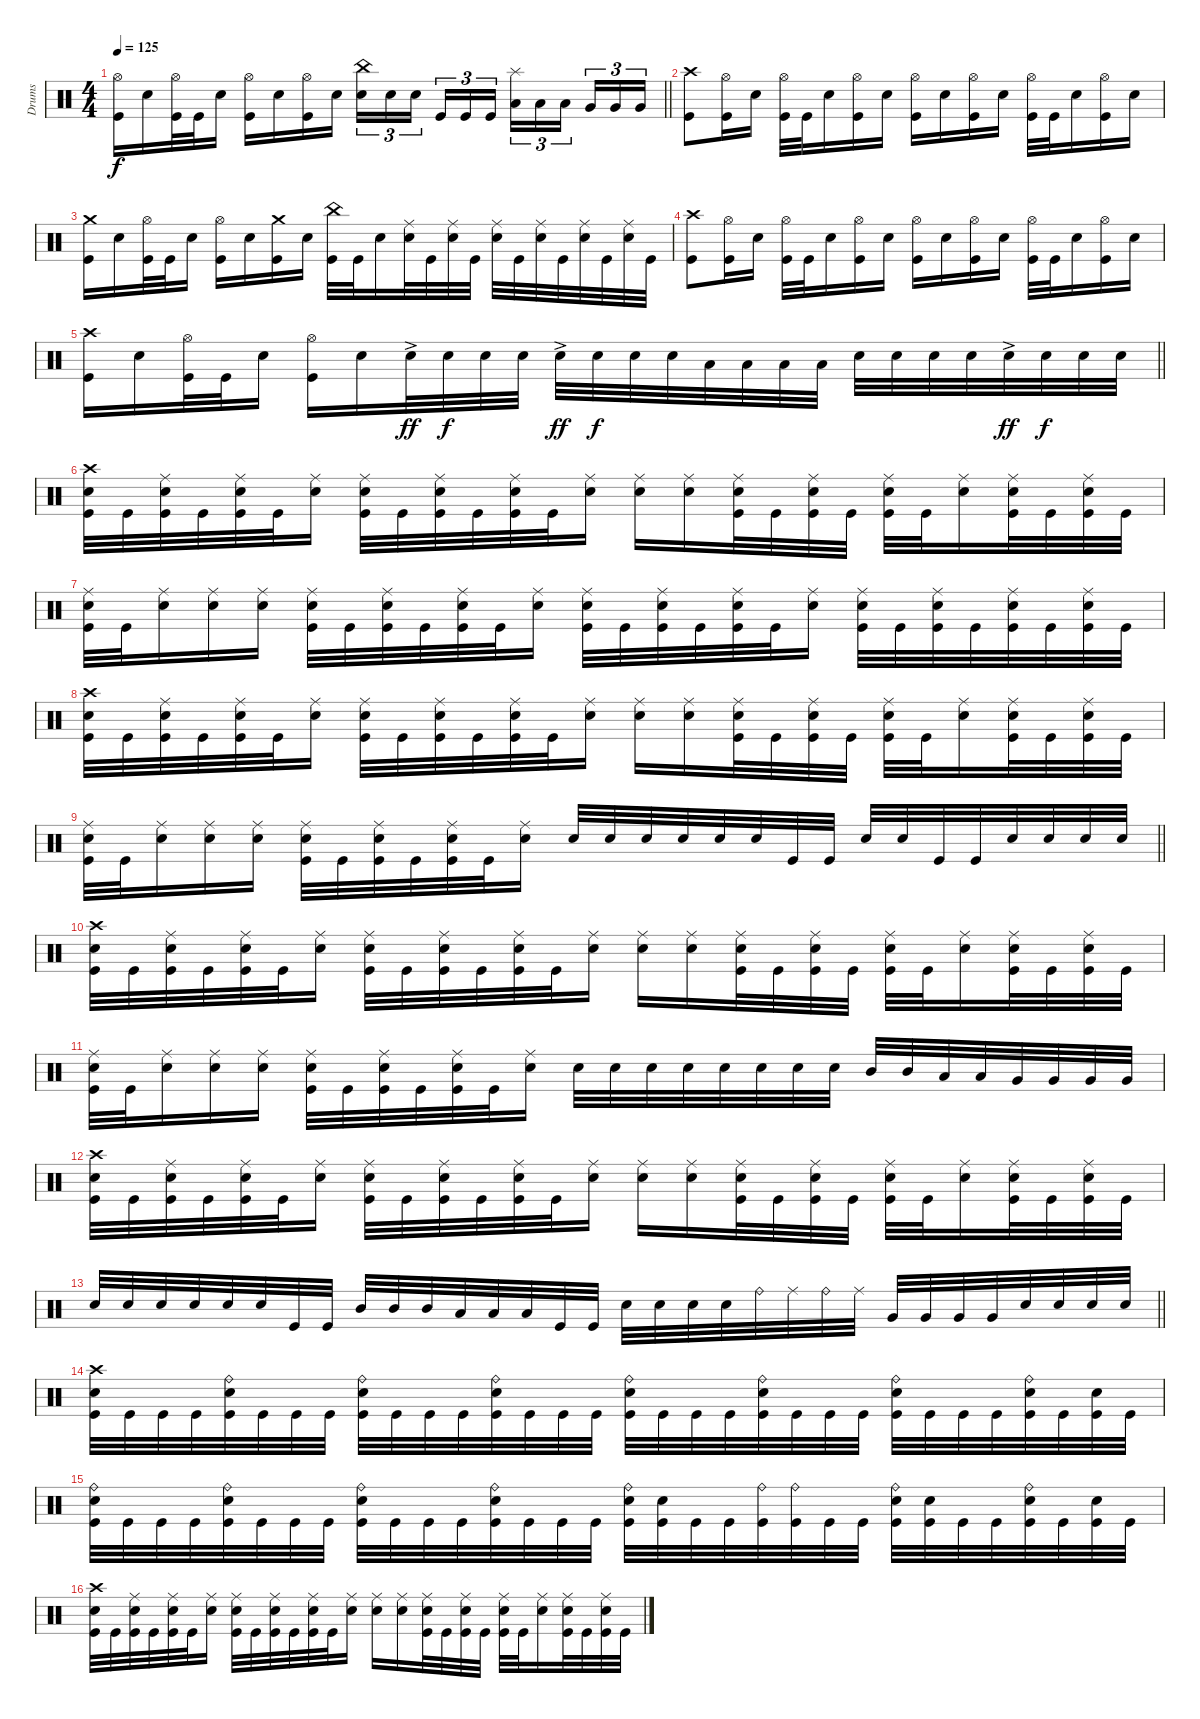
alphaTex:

\track ("Drums" "Drums") {instrument percussion}
\staff
\articulation defaults
\ts (4 4)
\tempo 125
\clef neutral
\barLineRight lightlight
\ks c
("Hi-Hat (open)" "Kick (hit)").16{dy f} "Electric Snare (hit)".16 ("Hi-Hat (open)" "Kick (hit)").32 "Kick (hit)".32 "Electric Snare (hit)".16 ("Hi-Hat (open)" "Kick (hit)").16 "Electric Snare (hit)".16 ("Hi-Hat (open)" "Kick (hit)").16 "Electric Snare (hit)".16 ("China (hit)" "Electric Snare (hit)").16{tu (3 2)} "Electric Snare (hit)".16{tu (3 2)} "Electric Snare (hit)".16{tu (3 2) beam splitsecondary} "Kick (hit)".16{tu (3 2)} "Kick (hit)".16{tu (3 2)} "Kick (hit)".16{tu (3 2)} ("Splash (hit)" "Low Tom (hit)").16{tu (3 2)} "Low Tom (hit)".16{tu (3 2)} "Low Tom (hit)".16{tu (3 2) beam splitsecondary} "Very Low Tom (hit)".16{tu (3 2)} "Very Low Tom (hit)".16{tu (3 2)} "Very Low Tom (hit)".16{tu (3 2)} |
("Crash high (hit)" "Kick (hit)").8 ("Hi-Hat (open)" "Kick (hit)").16 "Electric Snare (hit)".16 ("Hi-Hat (open)" "Kick (hit)").32 "Kick (hit)".32 "Electric Snare (hit)".16 ("Hi-Hat (open)" "Kick (hit)").16 "Electric Snare (hit)".16 ("Hi-Hat (open)" "Kick (hit)").16 "Electric Snare (hit)".16 ("Hi-Hat (open)" "Kick (hit)").16 "Electric Snare (hit)".16 ("Hi-Hat (open)" "Kick (hit)").32 "Kick (hit)".32 "Electric Snare (hit)".16 ("Hi-Hat (open)" "Kick (hit)").16 "Electric Snare (hit)".16 |
("Crash medium (hit)" "Kick (hit)").16 "Electric Snare (hit)".16 ("Hi-Hat (open)" "Kick (hit)").32 "Kick (hit)".32 "Electric Snare (hit)".16 ("Hi-Hat (open)" "Kick (hit)").16 "Electric Snare (hit)".16 ("Crash medium (hit)" "Kick (hit)").16 "Electric Snare (hit)".16 ("China (hit)" "Kick (hit)").32 "Kick (hit)".32 "Electric Snare (hit)".16 ("Ride (middle)" "Electric Snare (hit)").32 "Kick (hit)".32 ("Ride (middle)" "Electric Snare (hit)").32 "Kick (hit)".32 ("Ride (middle)" "Electric Snare (hit)").32 "Kick (hit)".32 ("Ride (middle)" "Electric Snare (hit)").32 "Kick (hit)".32 ("Ride (middle)" "Electric Snare (hit)").32 "Kick (hit)".32 ("Ride (middle)" "Electric Snare (hit)").32 "Kick (hit)".32 |
("Crash high (hit)" "Kick (hit)").8 ("Hi-Hat (open)" "Kick (hit)").16 "Electric Snare (hit)".16 ("Hi-Hat (open)" "Kick (hit)").32 "Kick (hit)".32 "Electric Snare (hit)".16 ("Hi-Hat (open)" "Kick (hit)").16 "Electric Snare (hit)".16 ("Hi-Hat (open)" "Kick (hit)").16 "Electric Snare (hit)".16 ("Hi-Hat (open)" "Kick (hit)").16 "Electric Snare (hit)".16 ("Hi-Hat (open)" "Kick (hit)").32 "Kick (hit)".32 "Electric Snare (hit)".16 ("Hi-Hat (open)" "Kick (hit)").16 "Electric Snare (hit)".16 |
\barLineRight lightlight
("Crash high (hit)" "Kick (hit)").16 "Electric Snare (hit)".16 ("Hi-Hat (open)" "Kick (hit)").32 "Kick (hit)".32 "Electric Snare (hit)".16 ("Hi-Hat (open)" "Kick (hit)").16 "Electric Snare (hit)".16 "Electric Snare (hit)"{ac}.32{dy ff} "Electric Snare (hit)".32{dy f} "Electric Snare (hit)".32 "Electric Snare (hit)".32 "Electric Snare (hit)"{ac}.32{dy ff} "Electric Snare (hit)".32{dy f} "Electric Snare (hit)".32 "Electric Snare (hit)".32 "Low Tom (hit)".32 "Low Tom (hit)".32 "Low Tom (hit)".32 "Low Tom (hit)".32 "Electric Snare (hit)".32 "Electric Snare (hit)".32 "Electric Snare (hit)".32 "Electric Snare (hit)".32 "Electric Snare (hit)"{ac}.32{dy ff} "Electric Snare (hit)".32{dy f} "Electric Snare (hit)".32 "Electric Snare (hit)".32 |
\section ("" "")
("Crash high (hit)" "Electric Snare (hit)" "Kick (hit)").32 "Kick (hit)".32 ("Ride (middle)" "Electric Snare (hit)" "Kick (hit)").32 "Kick (hit)".32 ("Ride (middle)" "Electric Snare (hit)" "Kick (hit)").32 "Kick (hit)".32 ("Ride (middle)" "Electric Snare (hit)").16 ("Ride (middle)" "Electric Snare (hit)" "Kick (hit)").32 "Kick (hit)".32 ("Ride (middle)" "Electric Snare (hit)" "Kick (hit)").32 "Kick (hit)".32 ("Ride (middle)" "Electric Snare (hit)" "Kick (hit)").32 "Kick (hit)".32 ("Ride (middle)" "Electric Snare (hit)").16 ("Ride (middle)" "Electric Snare (hit)").16 ("Ride (middle)" "Electric Snare (hit)").16 ("Ride (middle)" "Electric Snare (hit)" "Kick (hit)").32 "Kick (hit)".32 ("Ride (middle)" "Electric Snare (hit)" "Kick (hit)").32 "Kick (hit)".32 ("Ride (middle)" "Electric Snare (hit)" "Kick (hit)").32 "Kick (hit)".32 ("Ride (middle)" "Electric Snare (hit)").16 ("Ride (middle)" "Electric Snare (hit)" "Kick (hit)").32 "Kick (hit)".32 ("Ride (middle)" "Electric Snare (hit)" "Kick (hit)").32 "Kick (hit)".32 |
("Ride (middle)" "Electric Snare (hit)" "Kick (hit)").32 "Kick (hit)".32 ("Ride (middle)" "Electric Snare (hit)").16 ("Ride (middle)" "Electric Snare (hit)").16 ("Ride (middle)" "Electric Snare (hit)").16 ("Ride (middle)" "Electric Snare (hit)" "Kick (hit)").32 "Kick (hit)".32 ("Ride (middle)" "Electric Snare (hit)" "Kick (hit)").32 "Kick (hit)".32 ("Ride (middle)" "Electric Snare (hit)" "Kick (hit)").32 "Kick (hit)".32 ("Ride (middle)" "Electric Snare (hit)").16 ("Ride (middle)" "Electric Snare (hit)" "Kick (hit)").32 "Kick (hit)".32 ("Ride (middle)" "Electric Snare (hit)" "Kick (hit)").32 "Kick (hit)".32 ("Ride (middle)" "Electric Snare (hit)" "Kick (hit)").32 "Kick (hit)".32 ("Ride (middle)" "Electric Snare (hit)").16 ("Ride (middle)" "Electric Snare (hit)" "Kick (hit)").32 "Kick (hit)".32 ("Ride (middle)" "Electric Snare (hit)" "Kick (hit)").32 "Kick (hit)".32 ("Ride (middle)" "Electric Snare (hit)" "Kick (hit)").32 "Kick (hit)".32 ("Ride (middle)" "Electric Snare (hit)" "Kick (hit)").32 "Kick (hit)".32 |
("Crash high (hit)" "Electric Snare (hit)" "Kick (hit)").32 "Kick (hit)".32 ("Ride (middle)" "Electric Snare (hit)" "Kick (hit)").32 "Kick (hit)".32 ("Ride (middle)" "Electric Snare (hit)" "Kick (hit)").32 "Kick (hit)".32 ("Ride (middle)" "Electric Snare (hit)").16 ("Ride (middle)" "Electric Snare (hit)" "Kick (hit)").32 "Kick (hit)".32 ("Ride (middle)" "Electric Snare (hit)" "Kick (hit)").32 "Kick (hit)".32 ("Ride (middle)" "Electric Snare (hit)" "Kick (hit)").32 "Kick (hit)".32 ("Ride (middle)" "Electric Snare (hit)").16 ("Ride (middle)" "Electric Snare (hit)").16 ("Ride (middle)" "Electric Snare (hit)").16 ("Ride (middle)" "Electric Snare (hit)" "Kick (hit)").32 "Kick (hit)".32 ("Ride (middle)" "Electric Snare (hit)" "Kick (hit)").32 "Kick (hit)".32 ("Ride (middle)" "Electric Snare (hit)" "Kick (hit)").32 "Kick (hit)".32 ("Ride (middle)" "Electric Snare (hit)").16 ("Ride (middle)" "Electric Snare (hit)" "Kick (hit)").32 "Kick (hit)".32 ("Ride (middle)" "Electric Snare (hit)" "Kick (hit)").32 "Kick (hit)".32 |
\barLineRight lightlight
("Ride (middle)" "Electric Snare (hit)" "Kick (hit)").32 "Kick (hit)".32 ("Ride (middle)" "Electric Snare (hit)").16 ("Ride (middle)" "Electric Snare (hit)").16 ("Ride (middle)" "Electric Snare (hit)").16 ("Ride (middle)" "Electric Snare (hit)" "Kick (hit)").32 "Kick (hit)".32 ("Ride (middle)" "Electric Snare (hit)" "Kick (hit)").32 "Kick (hit)".32 ("Ride (middle)" "Electric Snare (hit)" "Kick (hit)").32 "Kick (hit)".32 ("Ride (middle)" "Electric Snare (hit)").16 "Electric Snare (hit)".32 "Electric Snare (hit)".32 "Electric Snare (hit)".32 "Electric Snare (hit)".32 "Electric Snare (hit)".32 "Electric Snare (hit)".32 "Kick (hit)".32 "Kick (hit)".32 "Electric Snare (hit)".32 "Electric Snare (hit)".32 "Kick (hit)".32 "Kick (hit)".32 "Electric Snare (hit)".32 "Electric Snare (hit)".32 "Electric Snare (hit)".32 "Electric Snare (hit)".32 |
("Crash high (hit)" "Electric Snare (hit)" "Kick (hit)").32 "Kick (hit)".32 ("Ride (middle)" "Electric Snare (hit)" "Kick (hit)").32 "Kick (hit)".32 ("Ride (middle)" "Electric Snare (hit)" "Kick (hit)").32 "Kick (hit)".32 ("Ride (middle)" "Electric Snare (hit)").16 ("Ride (middle)" "Electric Snare (hit)" "Kick (hit)").32 "Kick (hit)".32 ("Ride (middle)" "Electric Snare (hit)" "Kick (hit)").32 "Kick (hit)".32 ("Ride (middle)" "Electric Snare (hit)" "Kick (hit)").32 "Kick (hit)".32 ("Ride (middle)" "Electric Snare (hit)").16 ("Ride (middle)" "Electric Snare (hit)").16 ("Ride (middle)" "Electric Snare (hit)").16 ("Ride (middle)" "Electric Snare (hit)" "Kick (hit)").32 "Kick (hit)".32 ("Ride (middle)" "Electric Snare (hit)" "Kick (hit)").32 "Kick (hit)".32 ("Ride (middle)" "Electric Snare (hit)" "Kick (hit)").32 "Kick (hit)".32 ("Ride (middle)" "Electric Snare (hit)").16 ("Ride (middle)" "Electric Snare (hit)" "Kick (hit)").32 "Kick (hit)".32 ("Ride (middle)" "Electric Snare (hit)" "Kick (hit)").32 "Kick (hit)".32 |
("Ride (middle)" "Electric Snare (hit)" "Kick (hit)").32 "Kick (hit)".32 ("Ride (middle)" "Electric Snare (hit)").16 ("Ride (middle)" "Electric Snare (hit)").16 ("Ride (middle)" "Electric Snare (hit)").16 ("Ride (middle)" "Electric Snare (hit)" "Kick (hit)").32 "Kick (hit)".32 ("Ride (middle)" "Electric Snare (hit)" "Kick (hit)").32 "Kick (hit)".32 ("Ride (middle)" "Electric Snare (hit)" "Kick (hit)").32 "Kick (hit)".32 ("Ride (middle)" "Electric Snare (hit)").16 "Electric Snare (hit)".32 "Electric Snare (hit)".32 "Electric Snare (hit)".32 "Electric Snare (hit)".32 "Electric Snare (hit)".32 "Electric Snare (hit)".32 "Electric Snare (hit)".32 "Electric Snare (hit)".32 "Mid Tom (hit)".32 "Mid Tom (hit)".32 "Low Tom (hit)".32 "Low Tom (hit)".32 "Very Low Tom (hit)".32 "Very Low Tom (hit)".32 "Very Low Tom (hit)".32 "Very Low Tom (hit)".32 |
("Crash high (hit)" "Electric Snare (hit)" "Kick (hit)").32 "Kick (hit)".32 ("Ride (middle)" "Electric Snare (hit)" "Kick (hit)").32 "Kick (hit)".32 ("Ride (middle)" "Electric Snare (hit)" "Kick (hit)").32 "Kick (hit)".32 ("Ride (middle)" "Electric Snare (hit)").16 ("Ride (middle)" "Electric Snare (hit)" "Kick (hit)").32 "Kick (hit)".32 ("Ride (middle)" "Electric Snare (hit)" "Kick (hit)").32 "Kick (hit)".32 ("Ride (middle)" "Electric Snare (hit)" "Kick (hit)").32 "Kick (hit)".32 ("Ride (middle)" "Electric Snare (hit)").16 ("Ride (middle)" "Electric Snare (hit)").16 ("Ride (middle)" "Electric Snare (hit)").16 ("Ride (middle)" "Electric Snare (hit)" "Kick (hit)").32 "Kick (hit)".32 ("Ride (middle)" "Electric Snare (hit)" "Kick (hit)").32 "Kick (hit)".32 ("Ride (middle)" "Electric Snare (hit)" "Kick (hit)").32 "Kick (hit)".32 ("Ride (middle)" "Electric Snare (hit)").16 ("Ride (middle)" "Electric Snare (hit)" "Kick (hit)").32 "Kick (hit)".32 ("Ride (middle)" "Electric Snare (hit)" "Kick (hit)").32 "Kick (hit)".32 |
\barLineRight lightlight "Electric Snare (hit)".32 "Electric Snare (hit)".32 "Electric Snare (hit)".32 "Electric Snare (hit)".32 "Electric Snare (hit)".32 "Electric Snare (hit)".32 "Kick (hit)".32 "Kick (hit)".32 "Mid Tom (hit)".32 "Mid Tom (hit)".32 "Mid Tom (hit)".32 "Low Tom (hit)".32 "Low Tom (hit)".32 "Low Tom (hit)".32 "Kick (hit)".32 "Kick (hit)".32 "Electric Snare (hit)".32 "Electric Snare (hit)".32 "Electric Snare (hit)".32 "Electric Snare (hit)".32 "Ride (bell)".32 "Ride (middle)".32 "Ride (bell)".32 "Ride (middle)".32 "Very Low Tom (hit)".32 "Very Low Tom (hit)".32 "Very Low Tom (hit)".32 "Very Low Tom (hit)".32 "Electric Snare (hit)".32 "Electric Snare (hit)".32 "Electric Snare (hit)".32 "Electric Snare (hit)".32
|
("Crash high (hit)" "Electric Snare (hit)" "Kick (hit)").32 "Kick (hit)".32 "Kick (hit)".32 "Kick (hit)".32 ("Ride (bell)" "Electric Snare (hit)" "Kick (hit)").32 "Kick (hit)".32 "Kick (hit)".32 "Kick (hit)".32 ("Ride (bell)" "Electric Snare (hit)" "Kick (hit)").32 "Kick (hit)".32 "Kick (hit)".32 "Kick (hit)".32 ("Ride (bell)" "Electric Snare (hit)" "Kick (hit)").32 "Kick (hit)".32 "Kick (hit)".32 "Kick (hit)".32 ("Ride (bell)" "Electric Snare (hit)" "Kick (hit)").32 "Kick (hit)".32 "Kick (hit)".32 "Kick (hit)".32 ("Ride (bell)" "Electric Snare (hit)" "Kick (hit)").32 "Kick (hit)".32 "Kick (hit)".32 "Kick (hit)".32 ("Ride (bell)" "Electric Snare (hit)" "Kick (hit)").32 "Kick (hit)".32 "Kick (hit)".32 "Kick (hit)".32 ("Ride (bell)" "Electric Snare (hit)" "Kick (hit)").32 "Kick (hit)".32 ("Electric Snare (hit)" "Kick (hit)").32 "Kick (hit)".32 |
("Ride (bell)" "Electric Snare (hit)" "Kick (hit)").32 "Kick (hit)".32 "Kick (hit)".32 "Kick (hit)".32 ("Ride (bell)" "Electric Snare (hit)" "Kick (hit)").32 "Kick (hit)".32 "Kick (hit)".32 "Kick (hit)".32 ("Ride (bell)" "Electric Snare (hit)" "Kick (hit)").32 "Kick (hit)".32 "Kick (hit)".32 "Kick (hit)".32 ("Ride (bell)" "Electric Snare (hit)" "Kick (hit)").32 "Kick (hit)".32 "Kick (hit)".32 "Kick (hit)".32 ("Ride (bell)" "Electric Snare (hit)" "Kick (hit)").32 ("Electric Snare (hit)" "Kick (hit)").32 "Kick (hit)".32 "Kick (hit)".32 ("Ride (bell)" "Kick (hit)").32 ("Ride (bell)" "Kick (hit)").32 "Kick (hit)".32 "Kick (hit)".32 ("Ride (bell)" "Electric Snare (hit)" "Kick (hit)").32 ("Electric Snare (hit)" "Kick (hit)").32 "Kick (hit)".32 "Kick (hit)".32 ("Ride (bell)" "Electric Snare (hit)" "Kick (hit)").32 "Kick (hit)".32 ("Electric Snare (hit)" "Kick (hit)").32 "Kick (hit)".32 |
("Crash high (hit)" "Electric Snare (hit)" "Kick (hit)").32 "Kick (hit)".32 ("Ride (middle)" "Electric Snare (hit)" "Kick (hit)").32 "Kick (hit)".32 ("Ride (middle)" "Electric Snare (hit)" "Kick (hit)").32 "Kick (hit)".32 ("Ride (middle)" "Electric Snare (hit)").16 ("Ride (middle)" "Electric Snare (hit)" "Kick (hit)").32 "Kick (hit)".32 ("Ride (middle)" "Electric Snare (hit)" "Kick (hit)").32 "Kick (hit)".32 ("Ride (middle)" "Electric Snare (hit)" "Kick (hit)").32 "Kick (hit)".32 ("Ride (middle)" "Electric Snare (hit)").16 ("Ride (middle)" "Electric Snare (hit)").16 ("Ride (middle)" "Electric Snare (hit)").16 ("Ride (middle)" "Electric Snare (hit)" "Kick (hit)").32 "Kick (hit)".32 ("Ride (middle)" "Electric Snare (hit)" "Kick (hit)").32 "Kick (hit)".32 ("Ride (middle)" "Electric Snare (hit)" "Kick (hit)").32 "Kick (hit)".32 ("Ride (middle)" "Electric Snare (hit)").16 ("Ride (middle)" "Electric Snare (hit)" "Kick (hit)").32 "Kick (hit)".32 ("Ride (middle)" "Electric Snare (hit)" "Kick (hit)").32 "Kick (hit)".32
